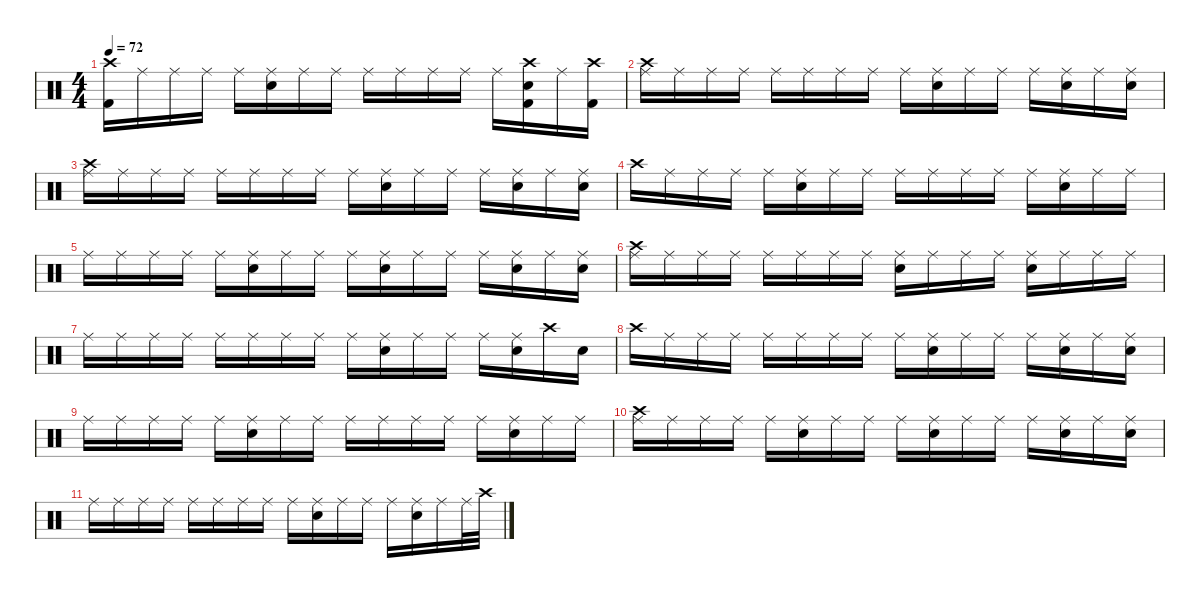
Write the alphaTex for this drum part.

\defaultSystemsLayout 4
\hideDynamics
\bracketExtendMode nobrackets
\singleTrackTrackNamePolicy hidden
\multiTrackTrackNamePolicy hidden
\otherSystemsTrackNameOrientation horizontal
\track ("Drums" "drm.") {instrument percussion}
\staff {score}
\articulation defaults
\ts (4 4)
\tempo 72
\clef neutral
\ks c
("Kick (hit) 2" "Crash high (hit)").16{dy f beam Down} "Ride (middle)".16{dy mp beam Down} "Ride (middle)".16{beam Down} "Ride (middle)".16{dy f beam Down} "Ride (middle)".16{dy mp beam Down} ("Snare (hit) 2" "Ride (middle)").16{dy f beam Down} "Ride (middle)".16{dy ff beam Down} "Ride (middle)".16{dy mf beam Down} "Ride (middle)".16{beam Down} "Ride (middle)".16{dy f beam Down} "Ride (middle)".16{dy mp beam Down} "Ride (middle)".16{dy f beam Down} "Ride (middle)".16{beam Down} ("Kick (hit) 2" "Snare (hit) 2" "Crash high (hit)").16{dy ff beam Down} "Ride (middle)".16{dy f beam Down} ("Kick (hit) 2" "Crash high (hit)").16{dy ff beam Down} |
("Crash high (hit)" "Ride (middle)").16{dy f beam Down} "Ride (middle)".16{dy mf beam Down} "Ride (middle)".16{dy mp beam Down} "Ride (middle)".16{dy ff beam Down} "Ride (middle)".16{dy mp beam Down} "Ride (middle)".16{beam Down} "Ride (middle)".16{dy f beam Down} "Ride (middle)".16{dy mp beam Down} "Ride (middle)".16{beam Down} ("Snare (hit) 2" "Ride (middle)").16{dy fff beam Down} "Ride (middle)".16{dy mp beam Down} "Ride (middle)".16{beam Down} "Ride (middle)".16{dy f beam Down} ("Snare (hit) 2" "Ride (middle)").16{dy fff beam Down} "Ride (middle)".16{dy mf beam Down} ("Snare (hit) 2" "Ride (middle)").16{dy fff beam Down} |
("Crash high (hit)" "Ride (middle)").16{dy f beam Down} "Ride (middle)".16{dy mp beam Down} "Ride (middle)".16{dy mf beam Down} "Ride (middle)".16{dy ff beam Down} "Ride (middle)".16{dy mp beam Down} "Ride (middle)".16{beam Down} "Ride (middle)".16{dy f beam Down} "Ride (middle)".16{dy mp beam Down} "Ride (middle)".16{beam Down} ("Snare (hit) 2" "Ride (middle)").16{dy fff beam Down} "Ride (middle)".16{dy mp beam Down} "Ride (middle)".16{dy mf beam Down} "Ride (middle)".16{dy f beam Down} ("Snare (hit) 2" "Ride (middle)").16{dy fff beam Down} "Ride (middle)".16{dy ff beam Down} ("Snare (hit) 2" "Ride (middle)").16{dy fff beam Down} |
"Crash high (hit)".16{dy f beam Down} "Ride (middle)".16{dy mp beam Down} "Ride (middle)".16{beam Down} "Ride (middle)".16{dy f beam Down} "Ride (middle)".16{dy mp beam Down} ("Snare (hit) 2" "Ride (middle)").16{dy fff beam Down} "Ride (middle)".16{dy ff beam Down} "Ride (middle)".16{dy mf beam Down} "Ride (middle)".16{beam Down} "Ride (middle)".16{dy f beam Down} "Ride (middle)".16{dy mp beam Down} "Ride (middle)".16{dy f beam Down} "Ride (middle)".16{beam Down} ("Snare (hit) 2" "Ride (middle)").16{dy fff beam Down} "Ride (middle)".16{dy f beam Down} "Ride (middle)".16{beam Down} |
"Ride (middle)".16{beam Down} "Ride (middle)".16{beam Down} "Ride (middle)".16{beam Down} "Ride (middle)".16{beam Down} "Ride (middle)".16{beam Down} ("Snare (hit) 2" "Ride (middle)").16{dy fff beam Down} "Ride (middle)".16{dy f beam Down} "Ride (middle)".16{beam Down} "Ride (middle)".16{dy mf beam Down} ("Snare (hit) 2" "Ride (middle)").16{dy fff beam Down} "Ride (middle)".16{dy mf beam Down} "Ride (middle)".16{dy ff beam Down} "Ride (middle)".16{dy mf beam Down} ("Snare (hit) 2" "Ride (middle)").16{dy fff beam Down} "Ride (middle)".16{dy ff beam Down} ("Snare (hit) 2" "Ride (middle)").16{dy fff beam Down} |
("Crash high (hit)" "Ride (middle)").16{dy f beam Down} "Ride (middle)".16{beam Down} "Ride (middle)".16{beam Down} "Ride (middle)".16{beam Down} "Ride (middle)".16{beam Down} "Ride (middle)".16{dy ff beam Down} "Ride (middle)".16{dy mp beam Down} "Ride (middle)".16{dy f beam Down} ("Snare (hit) 2" "Ride (middle)").16{dy fff beam Down} "Ride (middle)".16{dy f beam Down} "Ride (middle)".16{dy ff beam Down} "Ride (middle)".16{dy f beam Down} ("Snare (hit) 2" "Ride (middle)").16{dy fff beam Down} "Ride (middle)".16{dy f beam Down} "Ride (middle)".16{dy ff beam Down} "Ride (middle)".16{dy f beam Down} |
"Ride (middle)".16{beam Down} "Ride (middle)".16{dy mf beam Down} "Ride (middle)".16{dy mp beam Down} "Ride (middle)".16{dy ff beam Down} "Ride (middle)".16{dy mp beam Down} "Ride (middle)".16{beam Down} "Ride (middle)".16{dy f beam Down} "Ride (middle)".16{dy mp beam Down} "Ride (middle)".16{beam Down} ("Snare (hit) 2" "Ride (middle)").16{dy fff beam Down} "Ride (middle)".16{dy mp beam Down} "Ride (middle)".16{beam Down} "Ride (middle)".16{dy f beam Down} ("Snare (hit) 2" "Ride (middle)").16{dy fff beam Down} "Crash high (hit)".16{dy mf beam Down} "Snare (hit) 2".16{dy fff beam Down} |
"Crash high (hit)".16{dy f beam Down} "Ride (middle)".16{dy mp beam Down} "Ride (middle)".16{dy mf beam Down} "Ride (middle)".16{dy ff beam Down} "Ride (middle)".16{dy mp beam Down} "Ride (middle)".16{beam Down} "Ride (middle)".16{dy f beam Down} "Ride (middle)".16{dy mp beam Down} "Ride (middle)".16{beam Down} ("Snare (hit) 2" "Ride (middle)").16{dy fff beam Down} "Ride (middle)".16{dy mp beam Down} "Ride (middle)".16{dy mf beam Down} "Ride (middle)".16{dy f beam Down} ("Snare (hit) 2" "Ride (middle)").16{dy fff beam Down} "Ride (middle)".16{dy ff beam Down} ("Snare (hit) 2" "Ride (middle)").16{dy fff beam Down} |
"Ride (middle)".16{dy f beam Down} "Ride (middle)".16{dy mp beam Down} "Ride (middle)".16{beam Down} "Ride (middle)".16{dy f beam Down} "Ride (middle)".16{dy mp beam Down} ("Snare (hit) 2" "Ride (middle)").16{dy fff beam Down} "Ride (middle)".16{dy ff beam Down} "Ride (middle)".16{dy mf beam Down} "Ride (middle)".16{beam Down} "Ride (middle)".16{dy f beam Down} "Ride (middle)".16{dy mp beam Down} "Ride (middle)".16{dy f beam Down} "Ride (middle)".16{beam Down} ("Snare (hit) 2" "Ride (middle)").16{dy fff beam Down} "Ride (middle)".16{dy f beam Down} "Ride (middle)".16{beam Down} |
("Crash high (hit)" "Ride (middle)").16{beam Down} "Ride (middle)".16{beam Down} "Ride (middle)".16{beam Down} "Ride (middle)".16{beam Down} "Ride (middle)".16{beam Down} ("Snare (hit) 2" "Ride (middle)").16{dy fff beam Down} "Ride (middle)".16{dy f beam Down} "Ride (middle)".16{beam Down} "Ride (middle)".16{dy mf beam Down} ("Snare (hit) 2" "Ride (middle)").16{dy fff beam Down} "Ride (middle)".16{dy mf beam Down} "Ride (middle)".16{dy ff beam Down} "Ride (middle)".16{dy mf beam Down} ("Snare (hit) 2" "Ride (middle)").16{dy fff beam Down} "Ride (middle)".16{dy ff beam Down} ("Snare (hit) 2" "Ride (middle)").16{dy fff beam Down} |
"Ride (middle)".16{dy f beam Down} "Ride (middle)".16{beam Down} "Ride (middle)".16{beam Down} "Ride (middle)".16{beam Down} "Ride (middle)".16{beam Down} "Ride (middle)".16{beam Down} "Ride (middle)".16{dy mp beam Down} "Ride (middle)".16{beam Down} "Ride (middle)".16{dy f beam Down} ("Snare (hit) 2" "Ride (middle)").16{dy fff beam Down} "Ride (middle)".16{dy f beam Down} "Ride (middle)".16{dy ff beam Down} "Ride (middle)".16{dy f beam Down} ("Snare (hit) 2" "Ride (middle)").16{dy fff beam Down} "Ride (middle)".16{dy f beam Down} "Ride (middle)".32{beam Down} "Crash high (hit)".32{beam Down}
